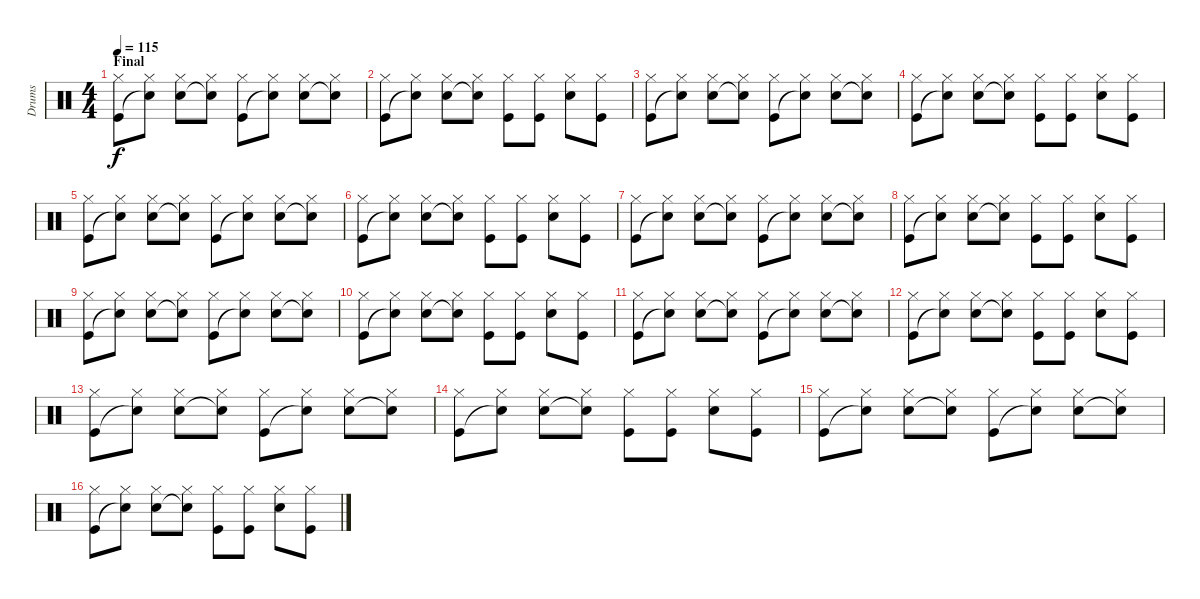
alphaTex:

\track ("Drums" "Drums") {instrument percussion}
\staff {score}
\articulation defaults
\ts (4 4)
\section ("" "Final")
\tempo 115
\clef neutral
\ks c
("Hi-Hat (closed)" "Kick (hit)").8{dy f} ("Hi-Hat (closed)" "Snare (hit)"{t}).8 ("Hi-Hat (closed)" "Snare (hit) 2").8 ("Hi-Hat (closed)" "Snare (hit)"{t}).8 ("Hi-Hat (closed)" "Kick (hit)").8 ("Hi-Hat (closed)" "Snare (hit)"{t}).8 ("Hi-Hat (closed)" "Snare (hit) 2").8 ("Hi-Hat (closed)" "Snare (hit)"{t}).8 |
("Hi-Hat (closed)" "Kick (hit)").8 ("Hi-Hat (closed)" "Snare (hit)"{t}).8 ("Hi-Hat (closed)" "Snare (hit) 2").8 ("Hi-Hat (closed)" "Snare (hit)"{t}).8 ("Hi-Hat (closed)" "Kick (hit)").8 ("Hi-Hat (closed)" "Kick (hit)").8 ("Hi-Hat (closed)" "Snare (hit) 2").8 ("Hi-Hat (closed)" "Kick (hit)").8 |
("Hi-Hat (closed)" "Kick (hit)").8 ("Hi-Hat (closed)" "Snare (hit)"{t}).8 ("Hi-Hat (closed)" "Snare (hit) 2").8 ("Hi-Hat (closed)" "Snare (hit)"{t}).8 ("Hi-Hat (closed)" "Kick (hit)").8 ("Hi-Hat (closed)" "Snare (hit)"{t}).8 ("Hi-Hat (closed)" "Snare (hit) 2").8 ("Hi-Hat (closed)" "Snare (hit)"{t}).8 |
("Hi-Hat (closed)" "Kick (hit)").8 ("Hi-Hat (closed)" "Snare (hit)"{t}).8 ("Hi-Hat (closed)" "Snare (hit) 2").8 ("Hi-Hat (closed)" "Snare (hit)"{t}).8 ("Hi-Hat (closed)" "Kick (hit)").8 ("Hi-Hat (closed)" "Kick (hit)").8 ("Hi-Hat (closed)" "Snare (hit) 2").8 ("Hi-Hat (closed)" "Kick (hit)").8 |
("Hi-Hat (closed)" "Kick (hit)").8 ("Hi-Hat (closed)" "Snare (hit)"{t}).8 ("Hi-Hat (closed)" "Snare (hit) 2").8 ("Hi-Hat (closed)" "Snare (hit)"{t}).8 ("Hi-Hat (closed)" "Kick (hit)").8 ("Hi-Hat (closed)" "Snare (hit)"{t}).8 ("Hi-Hat (closed)" "Snare (hit) 2").8 ("Hi-Hat (closed)" "Snare (hit)"{t}).8 |
("Hi-Hat (closed)" "Kick (hit)").8 ("Hi-Hat (closed)" "Snare (hit)"{t}).8 ("Hi-Hat (closed)" "Snare (hit) 2").8 ("Hi-Hat (closed)" "Snare (hit)"{t}).8 ("Hi-Hat (closed)" "Kick (hit)").8 ("Hi-Hat (closed)" "Kick (hit)").8 ("Hi-Hat (closed)" "Snare (hit) 2").8 ("Hi-Hat (closed)" "Kick (hit)").8 |
("Hi-Hat (closed)" "Kick (hit)").8 ("Hi-Hat (closed)" "Snare (hit)"{t}).8 ("Hi-Hat (closed)" "Snare (hit) 2").8 ("Hi-Hat (closed)" "Snare (hit)"{t}).8 ("Hi-Hat (closed)" "Kick (hit)").8 ("Hi-Hat (closed)" "Snare (hit)"{t}).8 ("Hi-Hat (closed)" "Snare (hit) 2").8 ("Hi-Hat (closed)" "Snare (hit)"{t}).8 |
("Hi-Hat (closed)" "Kick (hit)").8 ("Hi-Hat (closed)" "Snare (hit)"{t}).8 ("Hi-Hat (closed)" "Snare (hit) 2").8 ("Hi-Hat (closed)" "Snare (hit)"{t}).8 ("Hi-Hat (closed)" "Kick (hit)").8 ("Hi-Hat (closed)" "Kick (hit)").8 ("Hi-Hat (closed)" "Snare (hit) 2").8 ("Hi-Hat (closed)" "Kick (hit)").8 |
("Hi-Hat (closed)" "Kick (hit)").8 ("Hi-Hat (closed)" "Snare (hit)"{t}).8 ("Hi-Hat (closed)" "Snare (hit) 2").8 ("Hi-Hat (closed)" "Snare (hit)"{t}).8 ("Hi-Hat (closed)" "Kick (hit)").8 ("Hi-Hat (closed)" "Snare (hit)"{t}).8 ("Hi-Hat (closed)" "Snare (hit) 2").8 ("Hi-Hat (closed)" "Snare (hit)"{t}).8 |
("Hi-Hat (closed)" "Kick (hit)").8 ("Hi-Hat (closed)" "Snare (hit)"{t}).8 ("Hi-Hat (closed)" "Snare (hit) 2").8 ("Hi-Hat (closed)" "Snare (hit)"{t}).8 ("Hi-Hat (closed)" "Kick (hit)").8 ("Hi-Hat (closed)" "Kick (hit)").8 ("Hi-Hat (closed)" "Snare (hit) 2").8 ("Hi-Hat (closed)" "Kick (hit)").8 |
("Hi-Hat (closed)" "Kick (hit)").8 ("Hi-Hat (closed)" "Snare (hit)"{t}).8 ("Hi-Hat (closed)" "Snare (hit) 2").8 ("Hi-Hat (closed)" "Snare (hit)"{t}).8 ("Hi-Hat (closed)" "Kick (hit)").8 ("Hi-Hat (closed)" "Snare (hit)"{t}).8 ("Hi-Hat (closed)" "Snare (hit) 2").8 ("Hi-Hat (closed)" "Snare (hit)"{t}).8 |
("Hi-Hat (closed)" "Kick (hit)").8 ("Hi-Hat (closed)" "Snare (hit)"{t}).8 ("Hi-Hat (closed)" "Snare (hit) 2").8 ("Hi-Hat (closed)" "Snare (hit)"{t}).8 ("Hi-Hat (closed)" "Kick (hit)").8 ("Hi-Hat (closed)" "Kick (hit)").8 ("Hi-Hat (closed)" "Snare (hit) 2").8 ("Hi-Hat (closed)" "Kick (hit)").8 |
("Hi-Hat (closed)" "Kick (hit)").8 ("Hi-Hat (closed)" "Snare (hit)"{t}).8 ("Hi-Hat (closed)" "Snare (hit) 2").8 ("Hi-Hat (closed)" "Snare (hit)"{t}).8 ("Hi-Hat (closed)" "Kick (hit)").8 ("Hi-Hat (closed)" "Snare (hit)"{t}).8 ("Hi-Hat (closed)" "Snare (hit) 2").8 ("Hi-Hat (closed)" "Snare (hit)"{t}).8 |
("Hi-Hat (closed)" "Kick (hit)").8 ("Hi-Hat (closed)" "Snare (hit)"{t}).8 ("Hi-Hat (closed)" "Snare (hit) 2").8 ("Hi-Hat (closed)" "Snare (hit)"{t}).8 ("Hi-Hat (closed)" "Kick (hit)").8 ("Hi-Hat (closed)" "Kick (hit)").8 ("Hi-Hat (closed)" "Snare (hit) 2").8 ("Hi-Hat (closed)" "Kick (hit)").8 |
("Hi-Hat (closed)" "Kick (hit)").8{volume 0} ("Hi-Hat (closed)" "Snare (hit)"{t}).8 ("Hi-Hat (closed)" "Snare (hit) 2").8 ("Hi-Hat (closed)" "Snare (hit)"{t}).8 ("Hi-Hat (closed)" "Kick (hit)").8 ("Hi-Hat (closed)" "Snare (hit)"{t}).8 ("Hi-Hat (closed)" "Snare (hit) 2").8 ("Hi-Hat (closed)" "Snare (hit)"{t}).8 |
("Hi-Hat (closed)" "Kick (hit)").8 ("Hi-Hat (closed)" "Snare (hit)"{t}).8 ("Hi-Hat (closed)" "Snare (hit) 2").8 ("Hi-Hat (closed)" "Snare (hit)"{t}).8 ("Hi-Hat (closed)" "Kick (hit)").8 ("Hi-Hat (closed)" "Kick (hit)").8 ("Hi-Hat (closed)" "Snare (hit) 2").8 ("Hi-Hat (closed)" "Kick (hit)").8
